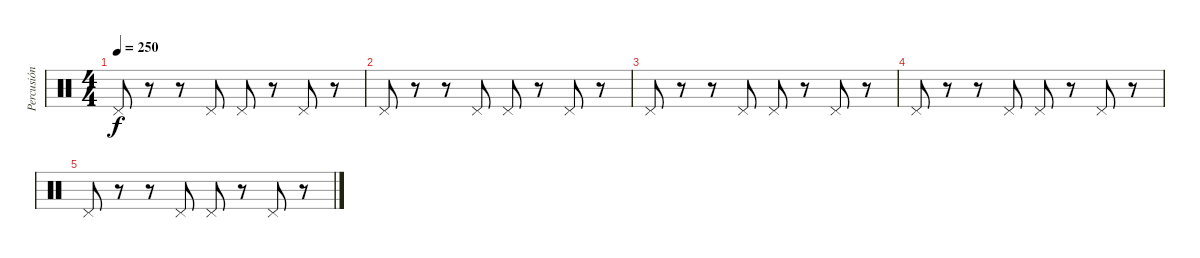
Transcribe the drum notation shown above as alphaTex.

\track ("Percusión" "Percusión") {instrument percussion}
\staff {score}
\articulation defaults
\ts (4 4)
\tempo 250
\clef neutral
\ks c "Pedal Hi-Hat (hit)".8{dy f}
r.8 r.8 "Pedal Hi-Hat (hit)".8 "Pedal Hi-Hat (hit)".8 r.8 "Pedal Hi-Hat (hit)".8 r.8 |
"Pedal Hi-Hat (hit)".8 r.8 r.8 "Pedal Hi-Hat (hit)".8 "Pedal Hi-Hat (hit)".8 r.8 "Pedal Hi-Hat (hit)".8 r.8 |
"Pedal Hi-Hat (hit)".8 r.8 r.8 "Pedal Hi-Hat (hit)".8 "Pedal Hi-Hat (hit)".8 r.8 "Pedal Hi-Hat (hit)".8 r.8 |
"Pedal Hi-Hat (hit)".8 r.8 r.8 "Pedal Hi-Hat (hit)".8 "Pedal Hi-Hat (hit)".8 r.8 "Pedal Hi-Hat (hit)".8 r.8 |
"Pedal Hi-Hat (hit)".8 r.8 r.8 "Pedal Hi-Hat (hit)".8 "Pedal Hi-Hat (hit)".8 r.8 "Pedal Hi-Hat (hit)".8 r.8
